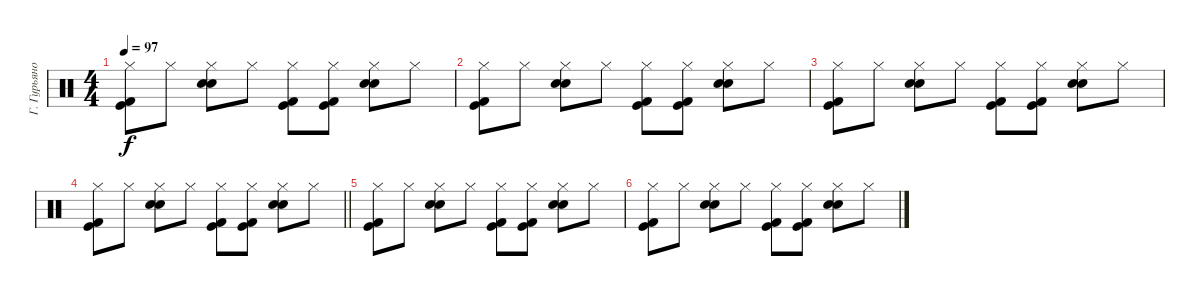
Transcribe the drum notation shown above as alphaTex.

\track ("Г. Гурьянов" "Г. Гурьяно") {instrument percussion}
\staff {score}
\articulation defaults
\ts (4 4)
\tempo 97
\clef neutral
\ks c
("Kick (hit) 2" "Kick (hit)" "Hi-Hat (closed)").8{dy f} "Hi-Hat (closed)".8 ("Electric Snare (hit)" "Snare (hit) 2" "Hi-Hat (closed)").8 "Hi-Hat (closed)".8 ("Kick (hit) 2" "Kick (hit)" "Hi-Hat (closed)").8 ("Kick (hit) 2" "Kick (hit)" "Hi-Hat (closed)").8 ("Electric Snare (hit)" "Snare (hit) 2" "Hi-Hat (closed)").8 "Hi-Hat (closed)".8 |
("Kick (hit) 2" "Kick (hit)" "Hi-Hat (closed)").8 "Hi-Hat (closed)".8 ("Electric Snare (hit)" "Snare (hit) 2" "Hi-Hat (closed)").8 "Hi-Hat (closed)".8 ("Kick (hit) 2" "Kick (hit)" "Hi-Hat (closed)").8 ("Kick (hit) 2" "Kick (hit)" "Hi-Hat (closed)").8 ("Electric Snare (hit)" "Snare (hit) 2" "Hi-Hat (closed)").8 "Hi-Hat (closed)".8 |
("Kick (hit) 2" "Kick (hit)" "Hi-Hat (closed)").8 "Hi-Hat (closed)".8 ("Electric Snare (hit)" "Snare (hit) 2" "Hi-Hat (closed)").8 "Hi-Hat (closed)".8 ("Kick (hit) 2" "Kick (hit)" "Hi-Hat (closed)").8 ("Kick (hit) 2" "Kick (hit)" "Hi-Hat (closed)").8 ("Electric Snare (hit)" "Snare (hit) 2" "Hi-Hat (closed)").8 "Hi-Hat (closed)".8 |
\barLineRight lightlight
("Kick (hit) 2" "Kick (hit)" "Hi-Hat (closed)").8 "Hi-Hat (closed)".8 ("Electric Snare (hit)" "Snare (hit) 2" "Hi-Hat (closed)").8 "Hi-Hat (closed)".8 ("Kick (hit) 2" "Kick (hit)" "Hi-Hat (closed)").8 ("Kick (hit) 2" "Kick (hit)" "Hi-Hat (closed)").8 ("Electric Snare (hit)" "Snare (hit) 2" "Hi-Hat (closed)").8 "Hi-Hat (closed)".8 |
("Kick (hit) 2" "Kick (hit)" "Hi-Hat (closed)").8 "Hi-Hat (closed)".8 ("Electric Snare (hit)" "Snare (hit) 2" "Hi-Hat (closed)").8 "Hi-Hat (closed)".8 ("Kick (hit) 2" "Kick (hit)" "Hi-Hat (closed)").8 ("Kick (hit) 2" "Kick (hit)" "Hi-Hat (closed)").8 ("Electric Snare (hit)" "Snare (hit) 2" "Hi-Hat (closed)").8 "Hi-Hat (closed)".8 |
("Kick (hit) 2" "Kick (hit)" "Hi-Hat (closed)").8 "Hi-Hat (closed)".8 ("Electric Snare (hit)" "Snare (hit) 2" "Hi-Hat (closed)").8 "Hi-Hat (closed)".8 ("Kick (hit) 2" "Kick (hit)" "Hi-Hat (closed)").8 ("Kick (hit) 2" "Kick (hit)" "Hi-Hat (closed)").8 ("Electric Snare (hit)" "Snare (hit) 2" "Hi-Hat (closed)").8 "Hi-Hat (closed)".8
